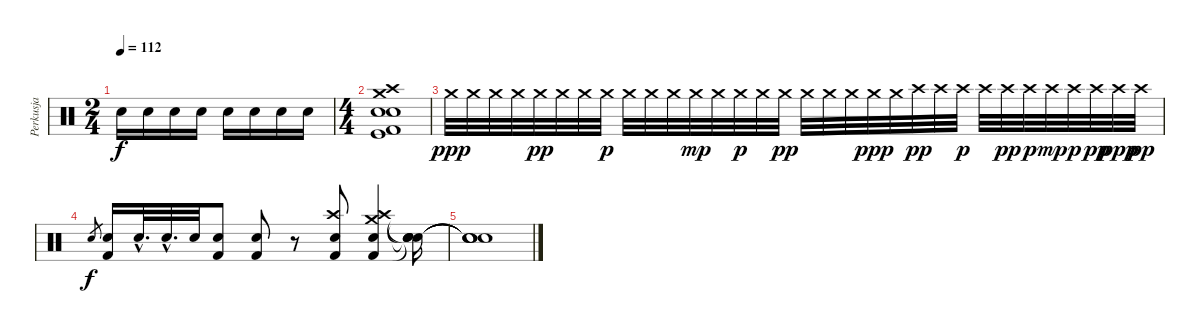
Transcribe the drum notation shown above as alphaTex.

\track ("Perkusja" "Perkusja") {instrument percussion}
\staff {score}
\articulation defaults
\ts (2 4)
\tempo 112
\clef neutral
\ks c "Electric Snare (hit)".16{dy f} "Electric Snare (hit)".16 "Electric Snare (hit)".16 "Electric Snare (hit)".16 "Electric Snare (hit)".16 "Electric Snare (hit)".16 "Electric Snare (hit)".16 "Electric Snare (hit)".16
|
\ts (4 4)
("Crash high (hit)" "Crash medium (hit)" "Kick (hit)" "Snare (hit) 2" "Electric Snare (hit)" "Kick (hit) 2").1 |
"Crash medium (hit)".32{dy ppp} "Crash medium (hit)".32 "Crash medium (hit)".32 "Crash medium (hit)".32 "Crash medium (hit)".32{dy pp} "Crash medium (hit)".32 "Crash medium (hit)".32 "Crash medium (hit)".32{dy p} "Crash medium (hit)".32 "Crash medium (hit)".32 "Crash medium (hit)".32 "Crash medium (hit)".32{dy mp} "Crash medium (hit)".32 "Crash medium (hit)".32{dy p} "Crash medium (hit)".32 "Crash medium (hit)".32{dy pp} "Crash medium (hit)".32 "Crash medium (hit)".32 "Crash medium (hit)".32 "Crash medium (hit)".32{dy ppp} "Crash medium (hit)".32 "Crash high (hit)".32{dy pp} "Crash high (hit)".32 "Crash high (hit)".32{dy p} "Crash high (hit)".32 "Crash high (hit)".32{dy pp} "Crash high (hit)".32{dy p} "Crash high (hit)".32{dy mp} "Crash high (hit)".32{dy p} "Crash high (hit)".32{dy pp} "Crash high (hit)".32{dy ppp} "Crash high (hit)".32{dy pp} |
"Electric Snare (hit)".8{gr dy f} ("Electric Snare (hit)" "Kick (hit) 2").16 "Snare (hit) 2"{hac}.32{d} "Snare (hit) 2"{hac}.32{d} "Snare (hit) 2".32 ("Electric Snare (hit)" "Kick (hit) 2").8 ("Electric Snare (hit)" "Kick (hit) 2").8 r.8 ("Crash high (hit)" "Electric Snare (hit)" "Kick (hit) 2").8 ("Crash high (hit)" "Crash medium (hit)" "Electric Snare (hit)" "Kick (hit) 2").4 ("Snare (hit)"{t} "Snare (hit)"{t} "Snare (hit)"{t} "Snare (hit)"{t}).16 |
("Snare (hit)"{t} "Snare (hit)"{t} "Snare (hit)"{t} "Snare (hit)"{t}).1
